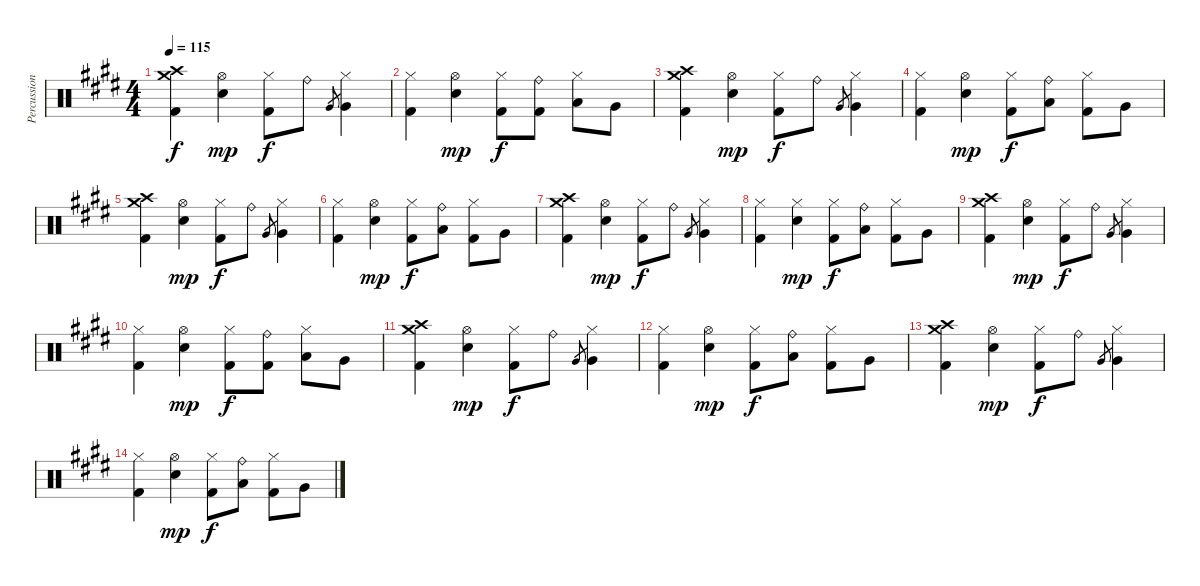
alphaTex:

\track ("Percussion" "Percussion") {instrument percussion}
\staff {score}
\articulation defaults
\ts (4 4)
\tempo 115
\clef neutral
\ks c#minor
("Crash high (hit)" "Crash medium (hit)" "Kick (hit) 2").4{dy f} ("Hi-Hat (open)" "Electric Snare (hit)").4{dy mp} ("Hi-Hat (closed)" "Kick (hit) 2").8{dy f} "Ride (bell)".8 "Very Low Tom (hit)".8{gr} ("Hi-Hat (closed)" "Very Low Tom (hit)").4 |
("Hi-Hat (closed)" "Kick (hit) 2").4 ("Hi-Hat (open)" "Electric Snare (hit)").4{dy mp} ("Hi-Hat (closed)" "Kick (hit) 2").8{dy f} ("Ride (bell)" "Kick (hit) 2").8 ("Hi-Hat (closed)" "Low Tom (hit)").8 "Very Low Tom (hit)".8 |
("Crash high (hit)" "Crash medium (hit)" "Kick (hit) 2").4 ("Hi-Hat (open)" "Electric Snare (hit)").4{dy mp} ("Hi-Hat (closed)" "Kick (hit) 2").8{dy f} "Ride (bell)".8 "Very Low Tom (hit)".8{gr} ("Hi-Hat (closed)" "Very Low Tom (hit)").4 |
("Hi-Hat (closed)" "Kick (hit) 2").4 ("Hi-Hat (open)" "Electric Snare (hit)").4{dy mp} ("Hi-Hat (closed)" "Kick (hit) 2").8{dy f} ("Ride (bell)" "Low Tom (hit)").8 ("Hi-Hat (closed)" "Kick (hit) 2").8 "Very Low Tom (hit)".8 |
("Crash high (hit)" "Crash medium (hit)" "Kick (hit) 2").4 ("Hi-Hat (open)" "Electric Snare (hit)").4{dy mp} ("Hi-Hat (closed)" "Kick (hit) 2").8{dy f} "Ride (bell)".8 "Very Low Tom (hit)".8{gr} ("Hi-Hat (closed)" "Very Low Tom (hit)").4 |
("Hi-Hat (closed)" "Kick (hit) 2").4 ("Hi-Hat (open)" "Electric Snare (hit)").4{dy mp} ("Hi-Hat (closed)" "Kick (hit) 2").8{dy f} ("Ride (bell)" "Low Tom (hit)").8 ("Hi-Hat (closed)" "Kick (hit) 2").8 "Very Low Tom (hit)".8 |
("Crash high (hit)" "Crash medium (hit)" "Kick (hit) 2").4 ("Hi-Hat (open)" "Electric Snare (hit)").4{dy mp} ("Hi-Hat (closed)" "Kick (hit) 2").8{dy f} "Ride (bell)".8 "Very Low Tom (hit)".8{gr} ("Hi-Hat (closed)" "Very Low Tom (hit)").4 |
("Hi-Hat (closed)" "Kick (hit) 2").4 ("Hi-Hat (closed)" "Electric Snare (hit)").4{dy mp} ("Hi-Hat (closed)" "Kick (hit) 2").8{dy f} ("Ride (bell)" "Low Tom (hit)").8 ("Hi-Hat (closed)" "Kick (hit) 2").8 "Very Low Tom (hit)".8 |
("Crash high (hit)" "Crash medium (hit)" "Kick (hit) 2").4 ("Hi-Hat (open)" "Electric Snare (hit)").4{dy mp} ("Hi-Hat (closed)" "Kick (hit) 2").8{dy f} "Ride (bell)".8 "Very Low Tom (hit)".8{gr} ("Hi-Hat (closed)" "Very Low Tom (hit)").4 |
("Hi-Hat (closed)" "Kick (hit) 2").4 ("Hi-Hat (open)" "Electric Snare (hit)").4{dy mp} ("Hi-Hat (closed)" "Kick (hit) 2").8{dy f} ("Ride (bell)" "Kick (hit) 2").8 ("Hi-Hat (closed)" "Low Tom (hit)").8 "Very Low Tom (hit)".8 |
("Crash high (hit)" "Crash medium (hit)" "Kick (hit) 2").4{volume 12} ("Hi-Hat (open)" "Electric Snare (hit)").4{dy mp} ("Hi-Hat (closed)" "Kick (hit) 2").8{dy f} "Ride (bell)".8 "Very Low Tom (hit)".8{gr} ("Hi-Hat (closed)" "Very Low Tom (hit)").4 |
("Hi-Hat (closed)" "Kick (hit) 2").4{volume 7} ("Hi-Hat (open)" "Electric Snare (hit)").4{dy mp} ("Hi-Hat (closed)" "Kick (hit) 2").8{dy f} ("Ride (bell)" "Low Tom (hit)").8 ("Hi-Hat (closed)" "Kick (hit) 2").8 "Very Low Tom (hit)".8 |
("Crash high (hit)" "Crash medium (hit)" "Kick (hit) 2").4{volume 4} ("Hi-Hat (open)" "Electric Snare (hit)").4{dy mp} ("Hi-Hat (closed)" "Kick (hit) 2").8{dy f} "Ride (bell)".8 "Very Low Tom (hit)".8{gr} ("Hi-Hat (closed)" "Very Low Tom (hit)").4 |
("Hi-Hat (closed)" "Kick (hit) 2").4{volume 2} ("Hi-Hat (open)" "Electric Snare (hit)").4{dy mp} ("Hi-Hat (closed)" "Kick (hit) 2").8{dy f} ("Ride (bell)" "Low Tom (hit)").8 ("Hi-Hat (closed)" "Kick (hit) 2").8 "Very Low Tom (hit)".8
